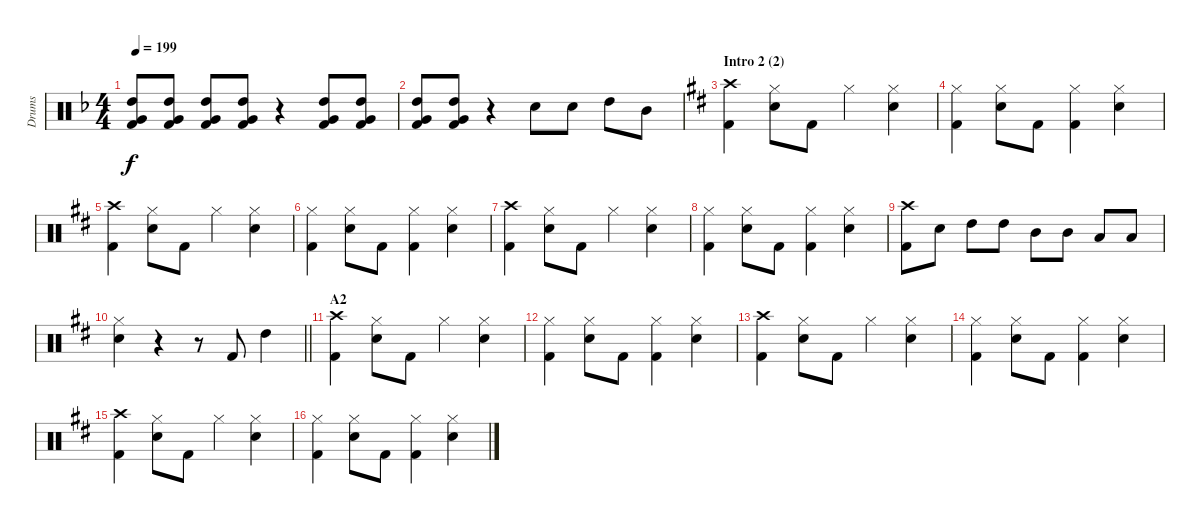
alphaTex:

\track ("Drums" "Drums") {instrument percussion}
\staff {score}
\articulation defaults
\ts (4 4)
\tempo 199
\clef neutral
\ks f
("High Tom (hit)" "Very Low Tom (hit)" "Kick (hit) 2").8{dy f volume 8} ("High Tom (hit)" "Very Low Tom (hit)" "Kick (hit) 2").8 ("High Tom (hit)" "Very Low Tom (hit)" "Kick (hit) 2").8 ("High Tom (hit)" "Very Low Tom (hit)" "Kick (hit) 2").8 r.4 ("High Tom (hit)" "Very Low Tom (hit)" "Kick (hit) 2").8 ("High Tom (hit)" "Very Low Tom (hit)" "Kick (hit) 2").8 |
("High Tom (hit)" "Very Low Tom (hit)" "Kick (hit) 2").8 ("High Tom (hit)" "Very Low Tom (hit)" "Kick (hit) 2").8 r.4{volume 12} "Snare (hit) 2".8 "Snare (hit) 2".8 "High Tom (hit)".8 "Mid Tom (hit)".8 |
\section ("" "Intro 2 (2)")
\ks d
("Crash high (hit)" "Kick (hit) 2").4 ("Hi-Hat (closed)" "Snare (hit) 2").8 "Kick (hit) 2".8 "Hi-Hat (closed)".4 ("Hi-Hat (closed)" "Snare (hit) 2").4 |
("Hi-Hat (closed)" "Kick (hit) 2").4 ("Hi-Hat (closed)" "Snare (hit) 2").8 "Kick (hit) 2".8 ("Hi-Hat (closed)" "Kick (hit) 2").4 ("Hi-Hat (closed)" "Snare (hit) 2").4 |
("Crash high (hit)" "Kick (hit) 2").4 ("Hi-Hat (closed)" "Snare (hit) 2").8 "Kick (hit) 2".8 "Hi-Hat (closed)".4 ("Hi-Hat (closed)" "Snare (hit) 2").4 |
("Hi-Hat (closed)" "Kick (hit) 2").4 ("Hi-Hat (closed)" "Snare (hit) 2").8 "Kick (hit) 2".8 ("Hi-Hat (closed)" "Kick (hit) 2").4 ("Hi-Hat (closed)" "Snare (hit) 2").4 |
("Crash high (hit)" "Kick (hit) 2").4 ("Hi-Hat (closed)" "Snare (hit) 2").8 "Kick (hit) 2".8 "Hi-Hat (closed)".4 ("Hi-Hat (closed)" "Snare (hit) 2").4 |
("Hi-Hat (closed)" "Kick (hit) 2").4 ("Hi-Hat (closed)" "Snare (hit) 2").8 "Kick (hit) 2".8 ("Hi-Hat (closed)" "Kick (hit) 2").4 ("Hi-Hat (closed)" "Snare (hit) 2").4 |
("Crash high (hit)" "Kick (hit) 2").8 "Snare (hit) 2".8 "High Tom (hit)".8 "High Tom (hit)".8 "Mid Tom (hit)".8 "Mid Tom (hit)".8 "Low Tom (hit)".8 "Low Tom (hit)".8 |
\barLineRight lightlight
("Hi-Hat (closed)" "Snare (hit) 2").4 r.4 r.8 "Kick (hit) 2".8 "High Tom (hit)".4 |
\section ("" "A2")
("Crash high (hit)" "Kick (hit) 2").4 ("Hi-Hat (closed)" "Snare (hit) 2").8 "Kick (hit) 2".8 "Hi-Hat (closed)".4 ("Hi-Hat (closed)" "Snare (hit) 2").4 |
("Hi-Hat (closed)" "Kick (hit) 2").4 ("Hi-Hat (closed)" "Snare (hit) 2").8 "Kick (hit) 2".8 ("Hi-Hat (closed)" "Kick (hit) 2").4 ("Hi-Hat (closed)" "Snare (hit) 2").4 |
("Crash high (hit)" "Kick (hit) 2").4 ("Hi-Hat (closed)" "Snare (hit) 2").8 "Kick (hit) 2".8 "Hi-Hat (closed)".4 ("Hi-Hat (closed)" "Snare (hit) 2").4 |
("Hi-Hat (closed)" "Kick (hit) 2").4 ("Hi-Hat (closed)" "Snare (hit) 2").8 "Kick (hit) 2".8 ("Hi-Hat (closed)" "Kick (hit) 2").4 ("Hi-Hat (closed)" "Snare (hit) 2").4 |
("Crash high (hit)" "Kick (hit) 2").4 ("Hi-Hat (closed)" "Snare (hit) 2").8 "Kick (hit) 2".8 "Hi-Hat (closed)".4 ("Hi-Hat (closed)" "Snare (hit) 2").4 |
("Hi-Hat (closed)" "Kick (hit) 2").4 ("Hi-Hat (closed)" "Snare (hit) 2").8 "Kick (hit) 2".8 ("Hi-Hat (closed)" "Kick (hit) 2").4 ("Hi-Hat (closed)" "Snare (hit) 2").4
